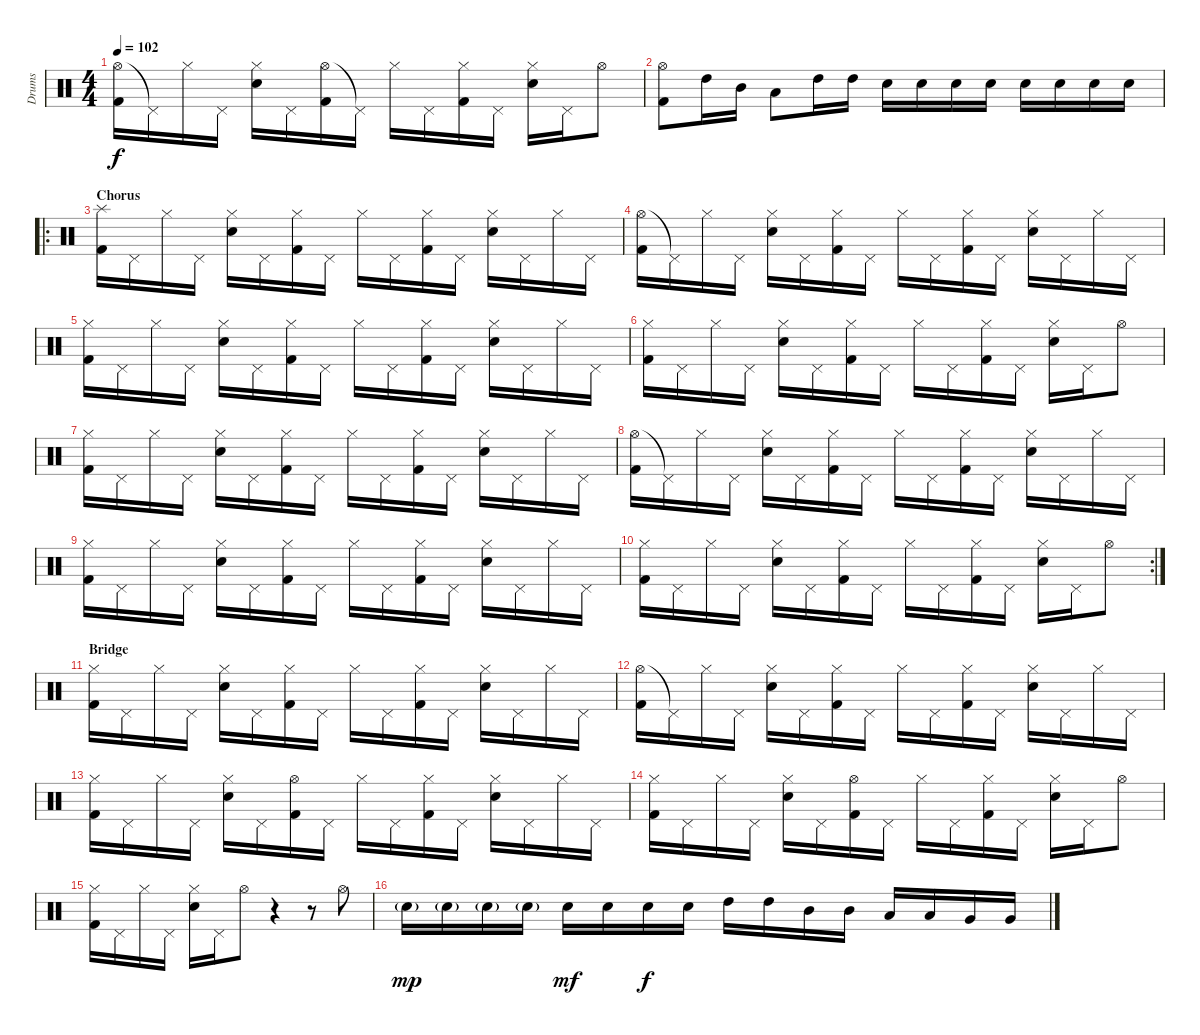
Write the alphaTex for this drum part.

\track ("Drums" "Drums") {instrument percussion}
\staff {score}
\articulation defaults
\ts (4 4)
\tempo 102
\clef neutral
\ks c
("Hi-Hat (open)" "Kick (hit) 2").16{dy f} "Pedal Hi-Hat (hit)"{t}.16 "Hi-Hat (closed)".16 "Pedal Hi-Hat (hit)".16 ("Hi-Hat (closed)" "Electric Snare (hit)").16 "Pedal Hi-Hat (hit)".16 ("Hi-Hat (open)" "Kick (hit) 2").16 "Pedal Hi-Hat (hit)"{t}.16 "Hi-Hat (closed)".16 "Pedal Hi-Hat (hit)".16 ("Hi-Hat (closed)" "Kick (hit) 2").16 "Pedal Hi-Hat (hit)".16 ("Hi-Hat (closed)" "Electric Snare (hit)").16 "Pedal Hi-Hat (hit)".16 "Hi-Hat (open)".8 |
("Hi-Hat (open)" "Kick (hit) 2").8 "High Tom (hit)".16 "Mid Tom (hit)".16 "Low Tom (hit)".8 "High Tom (hit)".16 "High Tom (hit)".16 "Electric Snare (hit)".16 "Electric Snare (hit)".16 "Electric Snare (hit)".16 "Electric Snare (hit)".16 "Electric Snare (hit)".16 "Electric Snare (hit)".16 "Electric Snare (hit)".16 "Electric Snare (hit)".16 |
\ro
\section ("" "Chorus")
("Splash (hit)" "Kick (hit) 2").16 "Pedal Hi-Hat (hit)".16 "Hi-Hat (closed)".16 "Pedal Hi-Hat (hit)".16 ("Hi-Hat (closed)" "Electric Snare (hit)").16 "Pedal Hi-Hat (hit)".16 ("Hi-Hat (closed)" "Kick (hit) 2").16 "Pedal Hi-Hat (hit)".16 "Hi-Hat (closed)".16 "Pedal Hi-Hat (hit)".16 ("Hi-Hat (closed)" "Kick (hit) 2").16 "Pedal Hi-Hat (hit)".16 ("Hi-Hat (closed)" "Electric Snare (hit)").16 "Pedal Hi-Hat (hit)".16 "Hi-Hat (closed)".16 "Pedal Hi-Hat (hit)".16 |
("Hi-Hat (open)" "Kick (hit) 2").16 "Pedal Hi-Hat (hit)"{t}.16 "Hi-Hat (closed)".16 "Pedal Hi-Hat (hit)".16 ("Hi-Hat (closed)" "Electric Snare (hit)").16 "Pedal Hi-Hat (hit)".16 ("Hi-Hat (closed)" "Kick (hit) 2").16 "Pedal Hi-Hat (hit)".16 "Hi-Hat (closed)".16 "Pedal Hi-Hat (hit)".16 ("Hi-Hat (closed)" "Kick (hit) 2").16 "Pedal Hi-Hat (hit)".16 ("Hi-Hat (closed)" "Electric Snare (hit)").16 "Pedal Hi-Hat (hit)".16 "Hi-Hat (closed)".16 "Pedal Hi-Hat (hit)".16 |
("Hi-Hat (closed)" "Kick (hit) 2").16 "Pedal Hi-Hat (hit)".16 "Hi-Hat (closed)".16 "Pedal Hi-Hat (hit)".16 ("Hi-Hat (closed)" "Electric Snare (hit)").16 "Pedal Hi-Hat (hit)".16 ("Hi-Hat (closed)" "Kick (hit) 2").16 "Pedal Hi-Hat (hit)".16 "Hi-Hat (closed)".16 "Pedal Hi-Hat (hit)".16 ("Hi-Hat (closed)" "Kick (hit) 2").16 "Pedal Hi-Hat (hit)".16 ("Hi-Hat (closed)" "Electric Snare (hit)").16 "Pedal Hi-Hat (hit)".16 "Hi-Hat (closed)".16 "Pedal Hi-Hat (hit)".16 |
("Hi-Hat (closed)" "Kick (hit) 2").16 "Pedal Hi-Hat (hit)".16 "Hi-Hat (closed)".16 "Pedal Hi-Hat (hit)".16 ("Hi-Hat (closed)" "Electric Snare (hit)").16 "Pedal Hi-Hat (hit)".16 ("Hi-Hat (closed)" "Kick (hit) 2").16 "Pedal Hi-Hat (hit)".16 "Hi-Hat (closed)".16 "Pedal Hi-Hat (hit)".16 ("Hi-Hat (closed)" "Kick (hit) 2").16 "Pedal Hi-Hat (hit)".16 ("Hi-Hat (closed)" "Electric Snare (hit)").16 "Pedal Hi-Hat (hit)".16 "Hi-Hat (open)".8 |
("Hi-Hat (closed)" "Kick (hit) 2").16 "Pedal Hi-Hat (hit)".16 "Hi-Hat (closed)".16 "Pedal Hi-Hat (hit)".16 ("Hi-Hat (closed)" "Electric Snare (hit)").16 "Pedal Hi-Hat (hit)".16 ("Hi-Hat (closed)" "Kick (hit) 2").16 "Pedal Hi-Hat (hit)".16 "Hi-Hat (closed)".16 "Pedal Hi-Hat (hit)".16 ("Hi-Hat (closed)" "Kick (hit) 2").16 "Pedal Hi-Hat (hit)".16 ("Hi-Hat (closed)" "Electric Snare (hit)").16 "Pedal Hi-Hat (hit)".16 "Hi-Hat (closed)".16 "Pedal Hi-Hat (hit)".16 |
("Hi-Hat (open)" "Kick (hit) 2").16 "Pedal Hi-Hat (hit)"{t}.16 "Hi-Hat (closed)".16 "Pedal Hi-Hat (hit)".16 ("Hi-Hat (closed)" "Electric Snare (hit)").16 "Pedal Hi-Hat (hit)".16 ("Hi-Hat (closed)" "Kick (hit) 2").16 "Pedal Hi-Hat (hit)".16 "Hi-Hat (closed)".16 "Pedal Hi-Hat (hit)".16 ("Hi-Hat (closed)" "Kick (hit) 2").16 "Pedal Hi-Hat (hit)".16 ("Hi-Hat (closed)" "Electric Snare (hit)").16 "Pedal Hi-Hat (hit)".16 "Hi-Hat (closed)".16 "Pedal Hi-Hat (hit)".16 |
("Hi-Hat (closed)" "Kick (hit) 2").16 "Pedal Hi-Hat (hit)".16 "Hi-Hat (closed)".16 "Pedal Hi-Hat (hit)".16 ("Hi-Hat (closed)" "Electric Snare (hit)").16 "Pedal Hi-Hat (hit)".16 ("Hi-Hat (closed)" "Kick (hit) 2").16 "Pedal Hi-Hat (hit)".16 "Hi-Hat (closed)".16 "Pedal Hi-Hat (hit)".16 ("Hi-Hat (closed)" "Kick (hit) 2").16 "Pedal Hi-Hat (hit)".16 ("Hi-Hat (closed)" "Electric Snare (hit)").16 "Pedal Hi-Hat (hit)".16 "Hi-Hat (closed)".16 "Pedal Hi-Hat (hit)".16 |
\rc 2
("Hi-Hat (closed)" "Kick (hit) 2").16 "Pedal Hi-Hat (hit)".16 "Hi-Hat (closed)".16 "Pedal Hi-Hat (hit)".16 ("Hi-Hat (closed)" "Electric Snare (hit)").16 "Pedal Hi-Hat (hit)".16 ("Hi-Hat (closed)" "Kick (hit) 2").16 "Pedal Hi-Hat (hit)".16 "Hi-Hat (closed)".16 "Pedal Hi-Hat (hit)".16 ("Hi-Hat (closed)" "Kick (hit) 2").16 "Pedal Hi-Hat (hit)".16 ("Hi-Hat (closed)" "Electric Snare (hit)").16 "Pedal Hi-Hat (hit)".16 "Hi-Hat (open)".8 |
\section ("" "Bridge")
("Hi-Hat (closed)" "Kick (hit) 2").16 "Pedal Hi-Hat (hit)".16 "Hi-Hat (closed)".16 "Pedal Hi-Hat (hit)".16 ("Hi-Hat (closed)" "Electric Snare (hit)").16 "Pedal Hi-Hat (hit)".16 ("Hi-Hat (closed)" "Kick (hit) 2").16 "Pedal Hi-Hat (hit)".16 "Hi-Hat (closed)".16 "Pedal Hi-Hat (hit)".16 ("Hi-Hat (closed)" "Kick (hit) 2").16 "Pedal Hi-Hat (hit)".16 ("Hi-Hat (closed)" "Electric Snare (hit)").16 "Pedal Hi-Hat (hit)".16 "Hi-Hat (closed)".16 "Pedal Hi-Hat (hit)".16 |
("Hi-Hat (open)" "Kick (hit) 2").16 "Pedal Hi-Hat (hit)"{t}.16 "Hi-Hat (closed)".16 "Pedal Hi-Hat (hit)".16 ("Hi-Hat (closed)" "Electric Snare (hit)").16 "Pedal Hi-Hat (hit)".16 ("Hi-Hat (closed)" "Kick (hit) 2").16 "Pedal Hi-Hat (hit)".16 "Hi-Hat (closed)".16 "Pedal Hi-Hat (hit)".16 ("Hi-Hat (closed)" "Kick (hit) 2").16 "Pedal Hi-Hat (hit)".16 ("Hi-Hat (closed)" "Electric Snare (hit)").16 "Pedal Hi-Hat (hit)".16 "Hi-Hat (closed)".16 "Pedal Hi-Hat (hit)".16 |
("Hi-Hat (closed)" "Kick (hit) 2").16 "Pedal Hi-Hat (hit)".16 "Hi-Hat (closed)".16 "Pedal Hi-Hat (hit)".16 ("Hi-Hat (closed)" "Electric Snare (hit)").16 "Pedal Hi-Hat (hit)".16 ("Hi-Hat (open)" "Kick (hit) 2").16 "Pedal Hi-Hat (hit)".16 "Hi-Hat (closed)".16 "Pedal Hi-Hat (hit)".16 ("Hi-Hat (closed)" "Kick (hit) 2").16 "Pedal Hi-Hat (hit)".16 ("Hi-Hat (closed)" "Electric Snare (hit)").16 "Pedal Hi-Hat (hit)".16 "Hi-Hat (closed)".16 "Pedal Hi-Hat (hit)".16 |
("Hi-Hat (closed)" "Kick (hit) 2").16 "Pedal Hi-Hat (hit)".16 "Hi-Hat (closed)".16 "Pedal Hi-Hat (hit)".16 ("Hi-Hat (closed)" "Electric Snare (hit)").16 "Pedal Hi-Hat (hit)".16 ("Hi-Hat (open)" "Kick (hit) 2").16 "Pedal Hi-Hat (hit)".16 "Hi-Hat (closed)".16 "Pedal Hi-Hat (hit)".16 ("Hi-Hat (closed)" "Kick (hit) 2").16 "Pedal Hi-Hat (hit)".16 ("Hi-Hat (closed)" "Electric Snare (hit)").16 "Pedal Hi-Hat (hit)".16 "Hi-Hat (open)".8 |
("Hi-Hat (closed)" "Kick (hit) 2").16 "Pedal Hi-Hat (hit)".16 "Hi-Hat (closed)".16 "Pedal Hi-Hat (hit)".16 ("Hi-Hat (closed)" "Electric Snare (hit)").16 "Pedal Hi-Hat (hit)".16 "Hi-Hat (open)".8 r.4 r.8 "Hi-Hat (open)".8 |
"Electric Snare (hit)"{g}.16{dy mp} "Electric Snare (hit)"{g}.16 "Electric Snare (hit)"{g}.16 "Electric Snare (hit)"{g}.16 "Electric Snare (hit)".16{dy mf} "Electric Snare (hit)".16 "Electric Snare (hit)".16{dy f} "Electric Snare (hit)".16 "High Tom (hit)".16 "High Tom (hit)".16 "Mid Tom (hit)".16 "Mid Tom (hit)".16 "Low Tom (hit)".16 "Low Tom (hit)".16 "Very Low Tom (hit)".16 "Very Low Tom (hit)".16
